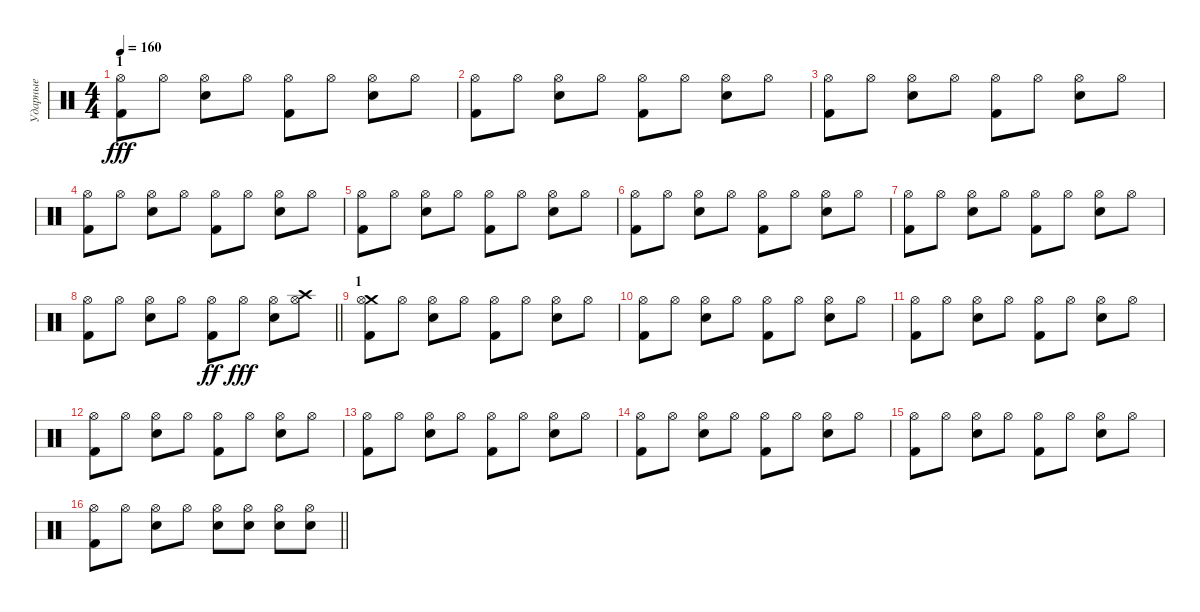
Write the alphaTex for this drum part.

\track ("Ударные" "Ударные") {instrument percussion}
\staff {score}
\articulation defaults
\ts (4 4)
\section ("" "1")
\tempo 160
\clef neutral
\ks c
("Hi-Hat (open)" "Kick (hit) 2").8{dy fff} "Hi-Hat (open)".8 ("Hi-Hat (open)" "Electric Snare (hit)").8 "Hi-Hat (open)".8 ("Hi-Hat (open)" "Kick (hit) 2").8 "Hi-Hat (open)".8 ("Hi-Hat (open)" "Electric Snare (hit)").8 "Hi-Hat (open)".8 |
("Hi-Hat (open)" "Kick (hit) 2").8 "Hi-Hat (open)".8 ("Hi-Hat (open)" "Electric Snare (hit)").8 "Hi-Hat (open)".8 ("Hi-Hat (open)" "Kick (hit) 2").8 "Hi-Hat (open)".8 ("Hi-Hat (open)" "Electric Snare (hit)").8 "Hi-Hat (open)".8 |
("Hi-Hat (open)" "Kick (hit) 2").8 "Hi-Hat (open)".8 ("Hi-Hat (open)" "Electric Snare (hit)").8 "Hi-Hat (open)".8 ("Hi-Hat (open)" "Kick (hit) 2").8 "Hi-Hat (open)".8 ("Hi-Hat (open)" "Electric Snare (hit)").8 "Hi-Hat (open)".8 |
("Hi-Hat (open)" "Kick (hit) 2").8 "Hi-Hat (open)".8 ("Hi-Hat (open)" "Electric Snare (hit)").8 "Hi-Hat (open)".8 ("Hi-Hat (open)" "Kick (hit) 2").8 "Hi-Hat (open)".8 ("Hi-Hat (open)" "Electric Snare (hit)").8 "Hi-Hat (open)".8 |
("Hi-Hat (open)" "Kick (hit) 2").8 "Hi-Hat (open)".8 ("Hi-Hat (open)" "Electric Snare (hit)").8 "Hi-Hat (open)".8 ("Hi-Hat (open)" "Kick (hit) 2").8 "Hi-Hat (open)".8 ("Hi-Hat (open)" "Electric Snare (hit)").8 "Hi-Hat (open)".8 |
("Hi-Hat (open)" "Kick (hit) 2").8 "Hi-Hat (open)".8 ("Hi-Hat (open)" "Electric Snare (hit)").8 "Hi-Hat (open)".8 ("Hi-Hat (open)" "Kick (hit) 2").8 "Hi-Hat (open)".8 ("Hi-Hat (open)" "Electric Snare (hit)").8 "Hi-Hat (open)".8 |
("Hi-Hat (open)" "Kick (hit) 2").8 "Hi-Hat (open)".8 ("Hi-Hat (open)" "Electric Snare (hit)").8 "Hi-Hat (open)".8 ("Hi-Hat (open)" "Kick (hit) 2").8 "Hi-Hat (open)".8 ("Hi-Hat (open)" "Electric Snare (hit)").8 "Hi-Hat (open)".8 |
\barLineRight lightlight
("Hi-Hat (open)" "Kick (hit) 2").8 "Hi-Hat (open)".8 ("Hi-Hat (open)" "Electric Snare (hit)").8 "Hi-Hat (open)".8 ("Hi-Hat (open)" "Kick (hit) 2").8{dy ff} "Hi-Hat (open)".8{dy fff} ("Hi-Hat (open)" "Electric Snare (hit)").8 ("Crash high (hit)" "Hi-Hat (open)").8 |
\section ("" "1")
("Crash medium (hit)" "Hi-Hat (open)" "Kick (hit) 2").8 "Hi-Hat (open)".8 ("Hi-Hat (open)" "Electric Snare (hit)").8 "Hi-Hat (open)".8 ("Hi-Hat (open)" "Kick (hit) 2").8 "Hi-Hat (open)".8 ("Hi-Hat (open)" "Electric Snare (hit)").8 "Hi-Hat (open)".8 |
("Hi-Hat (open)" "Kick (hit) 2").8 "Hi-Hat (open)".8 ("Hi-Hat (open)" "Electric Snare (hit)").8 "Hi-Hat (open)".8 ("Hi-Hat (open)" "Kick (hit) 2").8 "Hi-Hat (open)".8 ("Hi-Hat (open)" "Electric Snare (hit)").8 "Hi-Hat (open)".8 |
("Hi-Hat (open)" "Kick (hit) 2").8 "Hi-Hat (open)".8 ("Hi-Hat (open)" "Electric Snare (hit)").8 "Hi-Hat (open)".8 ("Hi-Hat (open)" "Kick (hit) 2").8 "Hi-Hat (open)".8 ("Hi-Hat (open)" "Electric Snare (hit)").8 "Hi-Hat (open)".8 |
("Hi-Hat (open)" "Kick (hit) 2").8 "Hi-Hat (open)".8 ("Hi-Hat (open)" "Electric Snare (hit)").8 "Hi-Hat (open)".8 ("Hi-Hat (open)" "Kick (hit) 2").8 "Hi-Hat (open)".8 ("Hi-Hat (open)" "Electric Snare (hit)").8 "Hi-Hat (open)".8 |
("Hi-Hat (open)" "Kick (hit) 2").8 "Hi-Hat (open)".8 ("Hi-Hat (open)" "Electric Snare (hit)").8 "Hi-Hat (open)".8 ("Hi-Hat (open)" "Kick (hit) 2").8 "Hi-Hat (open)".8 ("Hi-Hat (open)" "Electric Snare (hit)").8 "Hi-Hat (open)".8 |
("Hi-Hat (open)" "Kick (hit) 2").8 "Hi-Hat (open)".8 ("Hi-Hat (open)" "Electric Snare (hit)").8 "Hi-Hat (open)".8 ("Hi-Hat (open)" "Kick (hit) 2").8 "Hi-Hat (open)".8 ("Hi-Hat (open)" "Electric Snare (hit)").8 "Hi-Hat (open)".8 |
("Hi-Hat (open)" "Kick (hit) 2").8 "Hi-Hat (open)".8 ("Hi-Hat (open)" "Electric Snare (hit)").8 "Hi-Hat (open)".8 ("Hi-Hat (open)" "Kick (hit) 2").8 "Hi-Hat (open)".8 ("Hi-Hat (open)" "Electric Snare (hit)").8 "Hi-Hat (open)".8 |
\barLineRight lightlight
("Hi-Hat (open)" "Kick (hit) 2").8 "Hi-Hat (open)".8 ("Hi-Hat (open)" "Electric Snare (hit)").8 "Hi-Hat (open)".8 ("Hi-Hat (open)" "Electric Snare (hit)").8 ("Hi-Hat (open)" "Electric Snare (hit)").8 ("Hi-Hat (open)" "Electric Snare (hit)").8 ("Hi-Hat (open)" "Electric Snare (hit)").8
